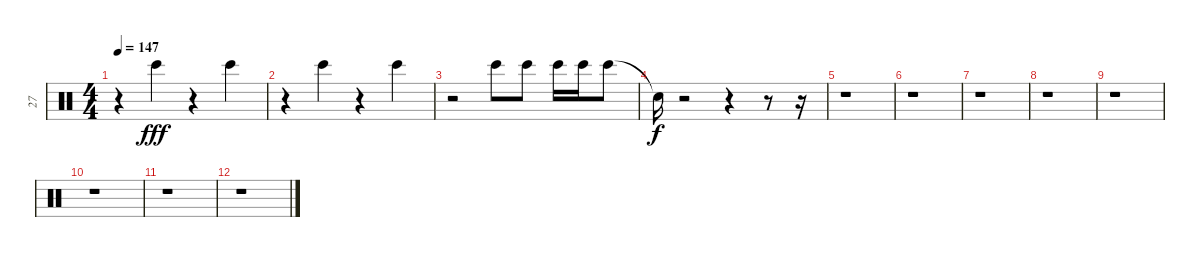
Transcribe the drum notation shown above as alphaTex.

\track ("27" "27") {instrument percussion}
\staff {score}
\articulation defaults
\ts (4 4)
\tempo 147
\clef neutral
\ks c
r.4{dy fff} "Bongo High (hit)".4 r.4 "Bongo High (hit)".4 |
r.4 "Bongo High (hit)".4 r.4 "Bongo High (hit)".4 |
r.2 "Bongo High (hit)".8 "Bongo High (hit)".8 "Bongo High (hit)".16 "Bongo High (hit)".16 "Bongo High (hit)".8 |
"Snare (hit)"{t}.16{dy f} r.2 r.4 r.8 r.16 |
r.1 |
r.1 |
r.1 |
r.1 |
r.1 |
r.1 |
r.1 |
r.1
